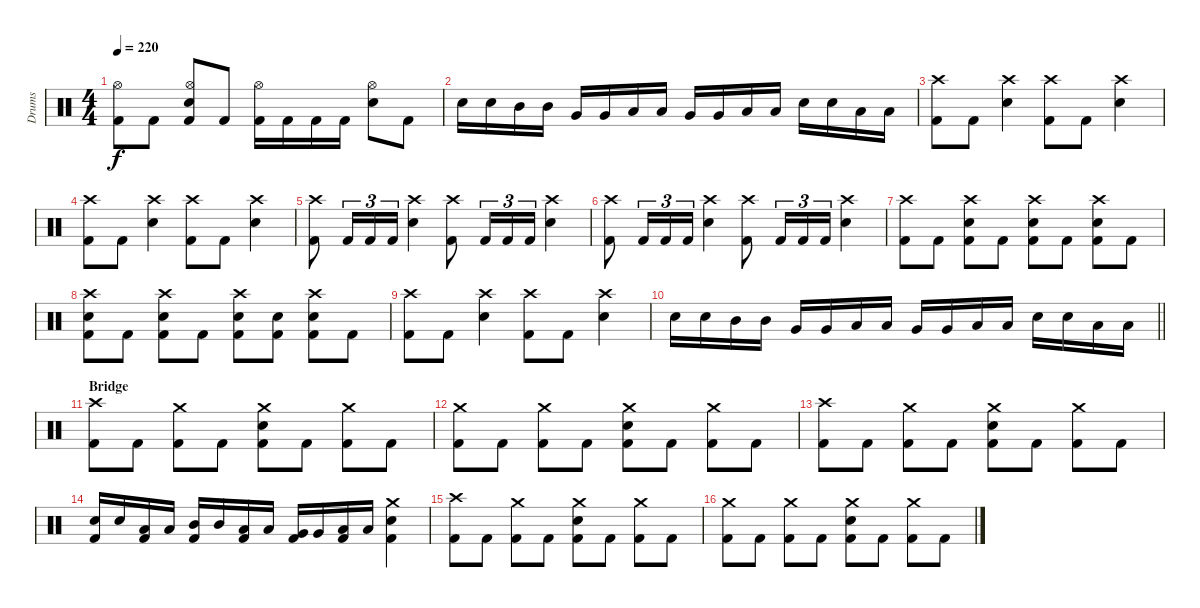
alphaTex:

\track ("Drums" "Drums") {instrument percussion}
\staff {score}
\articulation defaults
\ts (4 4)
\tempo 220
\clef neutral
\ks c
("Kick (hit) 2" "Hi-Hat (open)").8{dy f} "Kick (hit) 2".8 ("Electric Snare (hit)" "Kick (hit) 2" "Hi-Hat (open)").8 "Kick (hit) 2".8 ("Hi-Hat (open)" "Kick (hit) 2").16 "Kick (hit) 2".16 "Kick (hit) 2".16 "Kick (hit) 2".16 ("Electric Snare (hit)" "Hi-Hat (open)").8 "Kick (hit) 2".8 |
"Electric Snare (hit)".16 "Electric Snare (hit)".16 "Mid Tom (hit)".16 "Mid Tom (hit)".16 "Very Low Tom (hit)".16 "Very Low Tom (hit)".16 "Low Tom (hit)".16 "Low Tom (hit)".16 "Very Low Tom (hit)".16 "Very Low Tom (hit)".16 "Low Tom (hit)".16 "Low Tom (hit)".16 "Electric Snare (hit)".16 "Electric Snare (hit)".16 "Low Floor Tom (hit)".16 "Low Floor Tom (hit)".16 |
("Kick (hit) 2" "Crash high (hit)").8 "Kick (hit) 2".8 ("Electric Snare (hit)" "Crash high (hit)").4 ("Crash high (hit)" "Kick (hit) 2").8 "Kick (hit) 2".8 ("Crash high (hit)" "Electric Snare (hit)").4 |
("Kick (hit) 2" "Crash high (hit)").8 "Kick (hit) 2".8 ("Electric Snare (hit)" "Crash high (hit)").4 ("Crash high (hit)" "Kick (hit) 2").8 "Kick (hit) 2".8 ("Crash high (hit)" "Electric Snare (hit)").4 |
("Kick (hit) 2" "Crash high (hit)").8 "Kick (hit) 2".16{tu (3 2)} "Kick (hit) 2".16{tu (3 2)} "Kick (hit) 2".16{tu (3 2)} ("Electric Snare (hit)" "Crash high (hit)").4 ("Kick (hit) 2" "Crash high (hit)").8 "Kick (hit) 2".16{tu (3 2)} "Kick (hit) 2".16{tu (3 2)} "Kick (hit) 2".16{tu (3 2)} ("Electric Snare (hit)" "Crash high (hit)").4 |
("Kick (hit) 2" "Crash high (hit)").8 "Kick (hit) 2".16{tu (3 2)} "Kick (hit) 2".16{tu (3 2)} "Kick (hit) 2".16{tu (3 2)} ("Electric Snare (hit)" "Crash high (hit)").4 ("Kick (hit) 2" "Crash high (hit)").8 "Kick (hit) 2".16{tu (3 2)} "Kick (hit) 2".16{tu (3 2)} "Kick (hit) 2".16{tu (3 2)} ("Electric Snare (hit)" "Crash high (hit)").4 |
("Kick (hit) 2" "Crash high (hit)").8 "Kick (hit) 2".8 ("Kick (hit) 2" "Electric Snare (hit)" "Crash high (hit)").8 "Kick (hit) 2".8 ("Kick (hit) 2" "Electric Snare (hit)" "Crash high (hit)").8 "Kick (hit) 2".8 ("Kick (hit) 2" "Electric Snare (hit)" "Crash high (hit)").8 "Kick (hit) 2".8 |
("Kick (hit) 2" "Crash high (hit)" "Electric Snare (hit)").8 "Kick (hit) 2".8 ("Kick (hit) 2" "Electric Snare (hit)" "Crash high (hit)").8 "Kick (hit) 2".8 ("Kick (hit) 2" "Electric Snare (hit)" "Crash high (hit)").8 ("Kick (hit) 2" "Electric Snare (hit)").8 ("Kick (hit) 2" "Electric Snare (hit)" "Crash high (hit)").8 "Kick (hit) 2".8 |
("Kick (hit) 2" "Crash high (hit)").8 "Kick (hit) 2".8 ("Electric Snare (hit)" "Crash high (hit)").4 ("Crash high (hit)" "Kick (hit) 2").8 "Kick (hit) 2".8 ("Crash high (hit)" "Electric Snare (hit)").4 |
\barLineRight lightlight "Electric Snare (hit)".16 "Electric Snare (hit)".16 "Mid Tom (hit)".16 "Mid Tom (hit)".16 "Very Low Tom (hit)".16 "Very Low Tom (hit)".16 "Low Tom (hit)".16 "Low Tom (hit)".16 "Very Low Tom (hit)".16 "Very Low Tom (hit)".16 "Low Tom (hit)".16 "Low Tom (hit)".16 "Electric Snare (hit)".16 "Electric Snare (hit)".16 "Low Floor Tom (hit)".16 "Low Floor Tom (hit)".16
|
\section ("" "Bridge")
("Crash high (hit)" "Kick (hit) 2").8 "Kick (hit) 2".8 ("Crash medium (hit)" "Kick (hit) 2").8 "Kick (hit) 2".8 ("Crash medium (hit)" "Electric Snare (hit)" "Kick (hit) 2").8 "Kick (hit) 2".8 ("Crash medium (hit)" "Kick (hit) 2").8 "Kick (hit) 2".8 |
("Crash medium (hit)" "Kick (hit) 2").8 "Kick (hit) 2".8 ("Crash medium (hit)" "Kick (hit) 2").8 "Kick (hit) 2".8 ("Crash medium (hit)" "Electric Snare (hit)" "Kick (hit) 2").8 "Kick (hit) 2".8 ("Crash medium (hit)" "Kick (hit) 2").8 "Kick (hit) 2".8 |
("Crash high (hit)" "Kick (hit) 2").8 "Kick (hit) 2".8 ("Crash medium (hit)" "Kick (hit) 2").8 "Kick (hit) 2".8 ("Crash medium (hit)" "Electric Snare (hit)" "Kick (hit) 2").8 "Kick (hit) 2".8 ("Crash medium (hit)" "Kick (hit) 2").8 "Kick (hit) 2".8 |
("Electric Snare (hit)" "Kick (hit) 2").16 "Electric Snare (hit)".16 ("Low Tom (hit)" "Kick (hit) 2").16 "Low Tom (hit)".16 ("Mid Tom (hit)" "Kick (hit) 2").16 "Mid Tom (hit)".16 ("Low Tom (hit)" "Kick (hit) 2").16 "Low Tom (hit)".16 ("Very Low Tom (hit)" "Kick (hit) 2").16 "Very Low Tom (hit)".16 ("Low Tom (hit)" "Kick (hit) 2").16 "Low Tom (hit)".16 ("Crash medium (hit)" "Electric Snare (hit)" "Kick (hit) 2").4 |
("Crash high (hit)" "Kick (hit) 2").8 "Kick (hit) 2".8 ("Crash medium (hit)" "Kick (hit) 2").8 "Kick (hit) 2".8 ("Crash medium (hit)" "Electric Snare (hit)" "Kick (hit) 2").8 "Kick (hit) 2".8 ("Crash medium (hit)" "Kick (hit) 2").8 "Kick (hit) 2".8 |
("Crash medium (hit)" "Kick (hit) 2").8 "Kick (hit) 2".8 ("Crash medium (hit)" "Kick (hit) 2").8 "Kick (hit) 2".8 ("Crash medium (hit)" "Electric Snare (hit)" "Kick (hit) 2").8 "Kick (hit) 2".8 ("Crash medium (hit)" "Kick (hit) 2").8 "Kick (hit) 2".8
